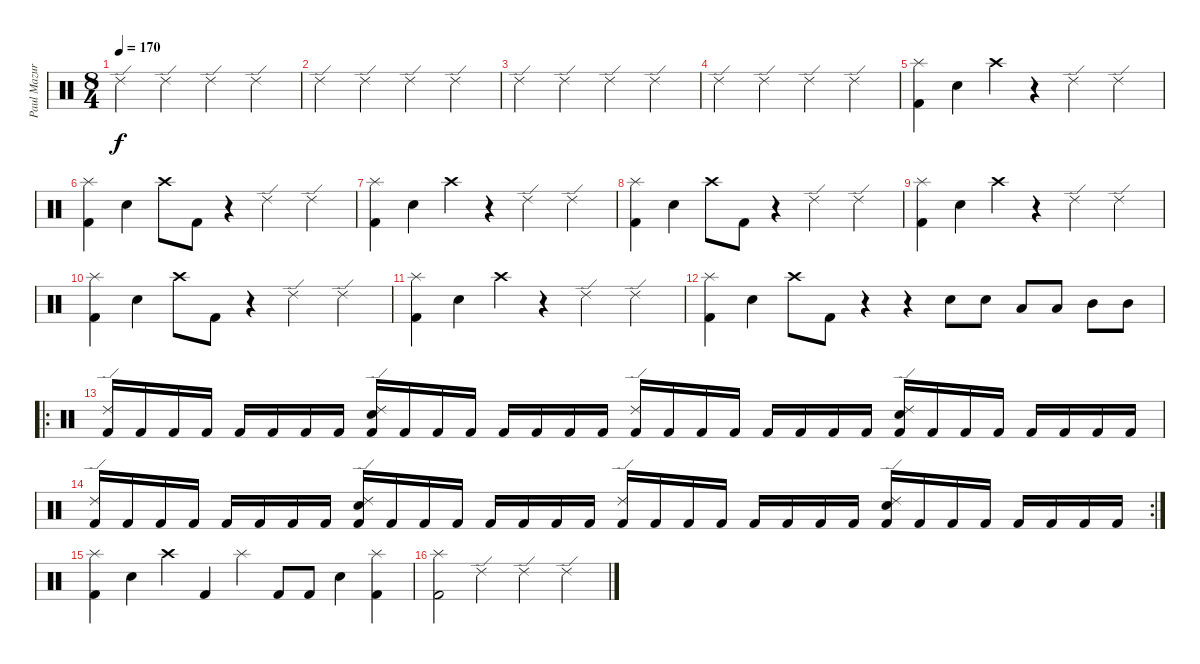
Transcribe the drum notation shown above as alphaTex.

\track ("Paul Mazurkiewicz" "Paul Mazur") {instrument percussion}
\staff {score}
\articulation defaults
\ts (8 4)
\tempo 170
\clef neutral
\ks c "Ride (edge) 2".2{dy f} "Ride (edge) 2".2 "Ride (edge) 2".2 "Ride (edge) 2".2
|
"Ride (edge) 2".2 "Ride (edge) 2".2 "Ride (edge) 2".2 "Ride (edge) 2".2 |
"Ride (edge) 2".2 "Ride (edge) 2".2 "Ride (edge) 2".2 "Ride (edge) 2".2 |
"Ride (edge) 2".2 "Ride (edge) 2".2 "Ride (edge) 2".2 "Ride (edge) 2".2 |
("Splash (hit)" "Kick (hit) 2").4 "Snare (hit) 2".4 "Crash high (hit)".4 r.4 "Ride (edge) 2".2 "Ride (edge) 2".2 |
("Splash (hit)" "Kick (hit) 2").4 "Snare (hit) 2".4 "Crash high (hit)".8 "Kick (hit) 2".8 r.4 "Ride (edge) 2".2 "Ride (edge) 2".2 |
("Splash (hit)" "Kick (hit) 2").4 "Snare (hit) 2".4 "Crash high (hit)".4 r.4 "Ride (edge) 2".2 "Ride (edge) 2".2 |
("Splash (hit)" "Kick (hit) 2").4 "Snare (hit) 2".4 "Crash high (hit)".8 "Kick (hit) 2".8 r.4 "Ride (edge) 2".2 "Ride (edge) 2".2 |
("Splash (hit)" "Kick (hit) 2").4 "Snare (hit) 2".4 "Crash high (hit)".4 r.4 "Ride (edge) 2".2 "Ride (edge) 2".2 |
("Splash (hit)" "Kick (hit) 2").4 "Snare (hit) 2".4 "Crash high (hit)".8 "Kick (hit) 2".8 r.4 "Ride (edge) 2".2 "Ride (edge) 2".2 |
("Splash (hit)" "Kick (hit) 2").4 "Snare (hit) 2".4 "Crash high (hit)".4 r.4 "Ride (edge) 2".2 "Ride (edge) 2".2 |
("Splash (hit)" "Kick (hit) 2").4 "Snare (hit) 2".4 "Crash high (hit)".8 "Kick (hit) 2".8 r.4 r.4 "Snare (hit) 2".8 "Snare (hit) 2".8 "Low Tom (hit)".8 "Low Tom (hit)".8 "Mid Tom (hit)".8 "Mid Tom (hit)".8 |
\ro
("Ride (edge) 2" "Kick (hit) 2").16 "Kick (hit) 2".16 "Kick (hit) 2".16 "Kick (hit) 2".16 "Kick (hit) 2".16 "Kick (hit) 2".16 "Kick (hit) 2".16 "Kick (hit) 2".16 ("Ride (edge) 2" "Snare (hit) 2" "Kick (hit) 2").16 "Kick (hit) 2".16 "Kick (hit) 2".16 "Kick (hit) 2".16 "Kick (hit) 2".16 "Kick (hit) 2".16 "Kick (hit) 2".16 "Kick (hit) 2".16 ("Ride (edge) 2" "Kick (hit) 2").16 "Kick (hit) 2".16 "Kick (hit) 2".16 "Kick (hit) 2".16 "Kick (hit) 2".16 "Kick (hit) 2".16 "Kick (hit) 2".16 "Kick (hit) 2".16 ("Ride (edge) 2" "Snare (hit) 2" "Kick (hit) 2").16 "Kick (hit) 2".16 "Kick (hit) 2".16 "Kick (hit) 2".16 "Kick (hit) 2".16 "Kick (hit) 2".16 "Kick (hit) 2".16 "Kick (hit) 2".16 |
\rc 2
("Ride (edge) 2" "Kick (hit) 2").16 "Kick (hit) 2".16 "Kick (hit) 2".16 "Kick (hit) 2".16 "Kick (hit) 2".16 "Kick (hit) 2".16 "Kick (hit) 2".16 "Kick (hit) 2".16 ("Ride (edge) 2" "Snare (hit) 2" "Kick (hit) 2").16 "Kick (hit) 2".16 "Kick (hit) 2".16 "Kick (hit) 2".16 "Kick (hit) 2".16 "Kick (hit) 2".16 "Kick (hit) 2".16 "Kick (hit) 2".16 ("Ride (edge) 2" "Kick (hit) 2").16 "Kick (hit) 2".16 "Kick (hit) 2".16 "Kick (hit) 2".16 "Kick (hit) 2".16 "Kick (hit) 2".16 "Kick (hit) 2".16 "Kick (hit) 2".16 ("Ride (edge) 2" "Snare (hit) 2" "Kick (hit) 2").16 "Kick (hit) 2".16 "Kick (hit) 2".16 "Kick (hit) 2".16 "Kick (hit) 2".16 "Kick (hit) 2".16 "Kick (hit) 2".16 "Kick (hit) 2".16 |
("Splash (hit)" "Kick (hit) 2").4 "Snare (hit) 2".4 "Crash high (hit)".4 "Kick (hit) 2".4 "Splash (hit)".4 "Kick (hit) 2".8 "Kick (hit) 2".8 "Snare (hit) 2".4 ("Splash (hit)" "Kick (hit) 2").4 |
("Splash (hit)" "Kick (hit) 2").2 "Ride (edge) 2".2 "Ride (edge) 2".2 "Ride (edge) 2".2
